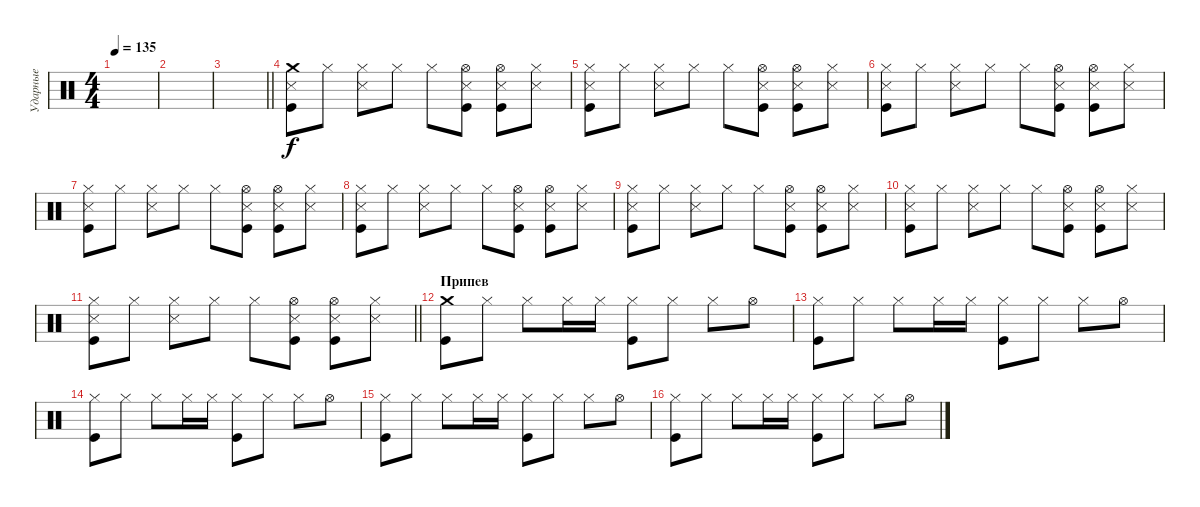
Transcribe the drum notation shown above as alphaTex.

\track ("Ударные" "Ударные") {instrument percussion}
\staff {score}
\articulation defaults
\ts (4 4)
\tempo 135
\clef neutral
\ks c
|
|
\barLineRight lightlight
|
\section ("" " ")
("Crash medium (hit)" "Kick (hit)" "Metronome (hit)").8 "Hi-Hat (closed)".8 ("Hi-Hat (closed)" "Metronome (hit)").8 "Hi-Hat (closed)".8 "Hi-Hat (closed)".8 ("Hi-Hat (open)" "Kick (hit)" "Metronome (hit)").8 ("Hi-Hat (open)" "Kick (hit)" "Metronome (hit)").8 ("Hi-Hat (closed)" "Metronome (hit)").8 |
("Hi-Hat (closed)" "Kick (hit)" "Metronome (hit)").8 "Hi-Hat (closed)".8 ("Hi-Hat (closed)" "Metronome (hit)").8 "Hi-Hat (closed)".8 "Hi-Hat (closed)".8 ("Hi-Hat (open)" "Kick (hit)" "Metronome (hit)").8 ("Hi-Hat (open)" "Kick (hit)" "Metronome (hit)").8 ("Hi-Hat (closed)" "Metronome (hit)").8 |
("Hi-Hat (closed)" "Kick (hit)" "Metronome (hit)").8 "Hi-Hat (closed)".8 ("Hi-Hat (closed)" "Metronome (hit)").8 "Hi-Hat (closed)".8 "Hi-Hat (closed)".8 ("Hi-Hat (open)" "Kick (hit)" "Metronome (hit)").8 ("Hi-Hat (open)" "Kick (hit)" "Metronome (hit)").8 ("Hi-Hat (closed)" "Metronome (hit)").8 |
("Hi-Hat (closed)" "Kick (hit)" "Metronome (hit)").8 "Hi-Hat (closed)".8 ("Hi-Hat (closed)" "Metronome (hit)").8 "Hi-Hat (closed)".8 "Hi-Hat (closed)".8 ("Hi-Hat (open)" "Kick (hit)" "Metronome (hit)").8 ("Hi-Hat (open)" "Kick (hit)" "Metronome (hit)").8 ("Hi-Hat (closed)" "Metronome (hit)").8 |
("Hi-Hat (closed)" "Kick (hit)" "Metronome (hit)").8 "Hi-Hat (closed)".8 ("Hi-Hat (closed)" "Metronome (hit)").8 "Hi-Hat (closed)".8 "Hi-Hat (closed)".8 ("Hi-Hat (open)" "Kick (hit)" "Metronome (hit)").8 ("Hi-Hat (open)" "Kick (hit)" "Metronome (hit)").8 ("Hi-Hat (closed)" "Metronome (hit)").8 |
("Hi-Hat (closed)" "Kick (hit)" "Metronome (hit)").8 "Hi-Hat (closed)".8 ("Hi-Hat (closed)" "Metronome (hit)").8 "Hi-Hat (closed)".8 "Hi-Hat (closed)".8 ("Hi-Hat (open)" "Kick (hit)" "Metronome (hit)").8 ("Hi-Hat (open)" "Kick (hit)" "Metronome (hit)").8 ("Hi-Hat (closed)" "Metronome (hit)").8 |
("Hi-Hat (closed)" "Kick (hit)" "Metronome (hit)").8 "Hi-Hat (closed)".8 ("Hi-Hat (closed)" "Metronome (hit)").8 "Hi-Hat (closed)".8 "Hi-Hat (closed)".8 ("Hi-Hat (open)" "Kick (hit)" "Metronome (hit)").8 ("Hi-Hat (open)" "Kick (hit)" "Metronome (hit)").8 ("Hi-Hat (closed)" "Metronome (hit)").8 |
\barLineRight lightlight
("Hi-Hat (closed)" "Kick (hit)" "Metronome (hit)").8 "Hi-Hat (closed)".8 ("Hi-Hat (closed)" "Metronome (hit)").8 "Hi-Hat (closed)".8 "Hi-Hat (closed)".8 ("Hi-Hat (open)" "Kick (hit)" "Metronome (hit)").8 ("Hi-Hat (open)" "Kick (hit)" "Metronome (hit)").8 ("Hi-Hat (closed)" "Metronome (hit)").8 |
\section ("" "Припев")
("Crash medium (hit)" "Kick (hit)").8 "Hi-Hat (closed)".8 "Hi-Hat (closed)".8 "Hi-Hat (closed)".16 "Hi-Hat (closed)".16 ("Hi-Hat (closed)" "Kick (hit)").8 "Hi-Hat (closed)".8 "Hi-Hat (closed)".8 "Hi-Hat (open)".8 |
("Hi-Hat (closed)" "Kick (hit)").8 "Hi-Hat (closed)".8 "Hi-Hat (closed)".8 "Hi-Hat (closed)".16 "Hi-Hat (closed)".16 ("Hi-Hat (closed)" "Kick (hit)").8 "Hi-Hat (closed)".8 "Hi-Hat (closed)".8 "Hi-Hat (open)".8 |
("Hi-Hat (closed)" "Kick (hit)").8 "Hi-Hat (closed)".8 "Hi-Hat (closed)".8 "Hi-Hat (closed)".16 "Hi-Hat (closed)".16 ("Hi-Hat (closed)" "Kick (hit)").8 "Hi-Hat (closed)".8 "Hi-Hat (closed)".8 "Hi-Hat (open)".8 |
("Hi-Hat (closed)" "Kick (hit)").8 "Hi-Hat (closed)".8 "Hi-Hat (closed)".8 "Hi-Hat (closed)".16 "Hi-Hat (closed)".16 ("Hi-Hat (closed)" "Kick (hit)").8 "Hi-Hat (closed)".8 "Hi-Hat (closed)".8 "Hi-Hat (open)".8 |
("Hi-Hat (closed)" "Kick (hit)").8 "Hi-Hat (closed)".8 "Hi-Hat (closed)".8 "Hi-Hat (closed)".16 "Hi-Hat (closed)".16 ("Hi-Hat (closed)" "Kick (hit)").8 "Hi-Hat (closed)".8 "Hi-Hat (closed)".8 "Hi-Hat (open)".8
